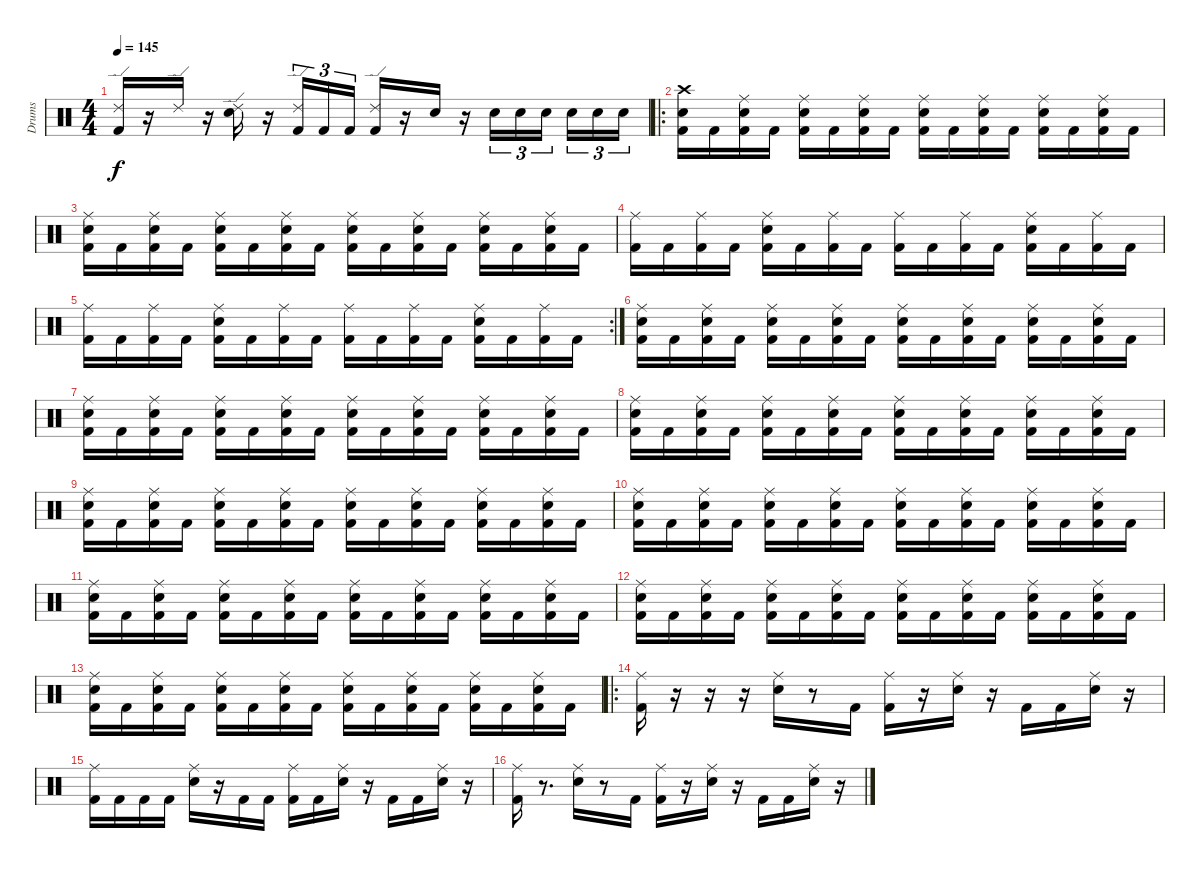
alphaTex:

\track ("Drums" "Drums") {instrument percussion}
\staff {score}
\articulation defaults
\ts (4 4)
\tempo 145
\clef neutral
\ks c
("Ride (edge) 2" "Kick (hit) 2").16{dy f} r.16 "Ride (edge) 2".16 r.16 ("Ride (edge) 2" "Electric Snare (hit)").16 r.16 ("Ride (edge) 2" "Kick (hit) 2").16{tu (3 2)} "Kick (hit) 2".16{tu (3 2)} "Kick (hit) 2".16{tu (3 2)} ("Ride (edge) 2" "Kick (hit) 2").16 r.16 "Electric Snare (hit)".16 r.16 "Electric Snare (hit)".16{tu (3 2)} "Electric Snare (hit)".16{tu (3 2)} "Electric Snare (hit)".16{tu (3 2)} "Electric Snare (hit)".16{tu (3 2)} "Electric Snare (hit)".16{tu (3 2)} "Electric Snare (hit)".16{tu (3 2)} |
\ro
("Crash high (hit)" "Electric Snare (hit)" "Kick (hit) 2").16 "Kick (hit) 2".16 ("Ride (middle)" "Electric Snare (hit)" "Kick (hit) 2").16 "Kick (hit) 2".16 ("Ride (middle)" "Electric Snare (hit)" "Kick (hit) 2").16 "Kick (hit) 2".16 ("Ride (middle)" "Electric Snare (hit)" "Kick (hit) 2").16 "Kick (hit) 2".16 ("Ride (middle)" "Electric Snare (hit)" "Kick (hit) 2").16 "Kick (hit) 2".16 ("Ride (middle)" "Electric Snare (hit)" "Kick (hit) 2").16 "Kick (hit) 2".16 ("Ride (middle)" "Electric Snare (hit)" "Kick (hit) 2").16 "Kick (hit) 2".16 ("Ride (middle)" "Electric Snare (hit)" "Kick (hit) 2").16 "Kick (hit) 2".16 |
("Ride (middle)" "Electric Snare (hit)" "Kick (hit) 2").16 "Kick (hit) 2".16 ("Ride (middle)" "Electric Snare (hit)" "Kick (hit) 2").16 "Kick (hit) 2".16 ("Ride (middle)" "Electric Snare (hit)" "Kick (hit) 2").16 "Kick (hit) 2".16 ("Ride (middle)" "Electric Snare (hit)" "Kick (hit) 2").16 "Kick (hit) 2".16 ("Ride (middle)" "Electric Snare (hit)" "Kick (hit) 2").16 "Kick (hit) 2".16 ("Ride (middle)" "Electric Snare (hit)" "Kick (hit) 2").16 "Kick (hit) 2".16 ("Ride (middle)" "Electric Snare (hit)" "Kick (hit) 2").16 "Kick (hit) 2".16 ("Ride (middle)" "Electric Snare (hit)" "Kick (hit) 2").16 "Kick (hit) 2".16 |
("Ride (middle)" "Kick (hit) 2").16 "Kick (hit) 2".16 ("Ride (middle)" "Kick (hit) 2").16 "Kick (hit) 2".16 ("Ride (middle)" "Electric Snare (hit)" "Kick (hit) 2").16 "Kick (hit) 2".16 ("Ride (middle)" "Kick (hit) 2").16 "Kick (hit) 2".16 ("Ride (middle)" "Kick (hit) 2").16 "Kick (hit) 2".16 ("Ride (middle)" "Kick (hit) 2").16 "Kick (hit) 2".16 ("Ride (middle)" "Electric Snare (hit)" "Kick (hit) 2").16 "Kick (hit) 2".16 ("Ride (middle)" "Kick (hit) 2").16 "Kick (hit) 2".16 |
\rc 2
("Ride (middle)" "Kick (hit) 2").16 "Kick (hit) 2".16 ("Ride (middle)" "Kick (hit) 2").16 "Kick (hit) 2".16 ("Ride (middle)" "Electric Snare (hit)" "Kick (hit) 2").16 "Kick (hit) 2".16 ("Ride (middle)" "Kick (hit) 2").16 "Kick (hit) 2".16 ("Ride (middle)" "Kick (hit) 2").16 "Kick (hit) 2".16 ("Ride (middle)" "Kick (hit) 2").16 "Kick (hit) 2".16 ("Ride (middle)" "Electric Snare (hit)" "Kick (hit) 2").16 "Kick (hit) 2".16 ("Ride (middle)" "Kick (hit) 2").16 "Kick (hit) 2".16 |
("Ride (middle)" "Electric Snare (hit)" "Kick (hit) 2").16 "Kick (hit) 2".16 ("Ride (middle)" "Electric Snare (hit)" "Kick (hit) 2").16 "Kick (hit) 2".16 ("Ride (middle)" "Electric Snare (hit)" "Kick (hit) 2").16 "Kick (hit) 2".16 ("Ride (middle)" "Electric Snare (hit)" "Kick (hit) 2").16 "Kick (hit) 2".16 ("Ride (middle)" "Electric Snare (hit)" "Kick (hit) 2").16 "Kick (hit) 2".16 ("Ride (middle)" "Electric Snare (hit)" "Kick (hit) 2").16 "Kick (hit) 2".16 ("Ride (middle)" "Electric Snare (hit)" "Kick (hit) 2").16 "Kick (hit) 2".16 ("Ride (middle)" "Electric Snare (hit)" "Kick (hit) 2").16 "Kick (hit) 2".16 |
("Ride (middle)" "Electric Snare (hit)" "Kick (hit) 2").16 "Kick (hit) 2".16 ("Ride (middle)" "Electric Snare (hit)" "Kick (hit) 2").16 "Kick (hit) 2".16 ("Ride (middle)" "Electric Snare (hit)" "Kick (hit) 2").16 "Kick (hit) 2".16 ("Ride (middle)" "Electric Snare (hit)" "Kick (hit) 2").16 "Kick (hit) 2".16 ("Ride (middle)" "Electric Snare (hit)" "Kick (hit) 2").16 "Kick (hit) 2".16 ("Ride (middle)" "Electric Snare (hit)" "Kick (hit) 2").16 "Kick (hit) 2".16 ("Ride (middle)" "Electric Snare (hit)" "Kick (hit) 2").16 "Kick (hit) 2".16 ("Ride (middle)" "Electric Snare (hit)" "Kick (hit) 2").16 "Kick (hit) 2".16 |
("Ride (middle)" "Electric Snare (hit)" "Kick (hit) 2").16 "Kick (hit) 2".16 ("Ride (middle)" "Electric Snare (hit)" "Kick (hit) 2").16 "Kick (hit) 2".16 ("Ride (middle)" "Electric Snare (hit)" "Kick (hit) 2").16 "Kick (hit) 2".16 ("Ride (middle)" "Electric Snare (hit)" "Kick (hit) 2").16 "Kick (hit) 2".16 ("Ride (middle)" "Electric Snare (hit)" "Kick (hit) 2").16 "Kick (hit) 2".16 ("Ride (middle)" "Electric Snare (hit)" "Kick (hit) 2").16 "Kick (hit) 2".16 ("Ride (middle)" "Electric Snare (hit)" "Kick (hit) 2").16 "Kick (hit) 2".16 ("Ride (middle)" "Electric Snare (hit)" "Kick (hit) 2").16 "Kick (hit) 2".16 |
("Ride (middle)" "Electric Snare (hit)" "Kick (hit) 2").16 "Kick (hit) 2".16 ("Ride (middle)" "Electric Snare (hit)" "Kick (hit) 2").16 "Kick (hit) 2".16 ("Ride (middle)" "Electric Snare (hit)" "Kick (hit) 2").16 "Kick (hit) 2".16 ("Ride (middle)" "Electric Snare (hit)" "Kick (hit) 2").16 "Kick (hit) 2".16 ("Ride (middle)" "Electric Snare (hit)" "Kick (hit) 2").16 "Kick (hit) 2".16 ("Ride (middle)" "Electric Snare (hit)" "Kick (hit) 2").16 "Kick (hit) 2".16 ("Ride (middle)" "Electric Snare (hit)" "Kick (hit) 2").16 "Kick (hit) 2".16 ("Ride (middle)" "Electric Snare (hit)" "Kick (hit) 2").16 "Kick (hit) 2".16 |
("Ride (middle)" "Electric Snare (hit)" "Kick (hit) 2").16 "Kick (hit) 2".16 ("Ride (middle)" "Electric Snare (hit)" "Kick (hit) 2").16 "Kick (hit) 2".16 ("Ride (middle)" "Electric Snare (hit)" "Kick (hit) 2").16 "Kick (hit) 2".16 ("Ride (middle)" "Electric Snare (hit)" "Kick (hit) 2").16 "Kick (hit) 2".16 ("Ride (middle)" "Electric Snare (hit)" "Kick (hit) 2").16 "Kick (hit) 2".16 ("Ride (middle)" "Electric Snare (hit)" "Kick (hit) 2").16 "Kick (hit) 2".16 ("Ride (middle)" "Electric Snare (hit)" "Kick (hit) 2").16 "Kick (hit) 2".16 ("Ride (middle)" "Electric Snare (hit)" "Kick (hit) 2").16 "Kick (hit) 2".16 |
("Ride (middle)" "Electric Snare (hit)" "Kick (hit) 2").16 "Kick (hit) 2".16 ("Ride (middle)" "Electric Snare (hit)" "Kick (hit) 2").16 "Kick (hit) 2".16 ("Ride (middle)" "Electric Snare (hit)" "Kick (hit) 2").16 "Kick (hit) 2".16 ("Ride (middle)" "Electric Snare (hit)" "Kick (hit) 2").16 "Kick (hit) 2".16 ("Ride (middle)" "Electric Snare (hit)" "Kick (hit) 2").16 "Kick (hit) 2".16 ("Ride (middle)" "Electric Snare (hit)" "Kick (hit) 2").16 "Kick (hit) 2".16 ("Ride (middle)" "Electric Snare (hit)" "Kick (hit) 2").16 "Kick (hit) 2".16 ("Ride (middle)" "Electric Snare (hit)" "Kick (hit) 2").16 "Kick (hit) 2".16 |
("Ride (middle)" "Electric Snare (hit)" "Kick (hit) 2").16 "Kick (hit) 2".16 ("Ride (middle)" "Electric Snare (hit)" "Kick (hit) 2").16 "Kick (hit) 2".16 ("Ride (middle)" "Electric Snare (hit)" "Kick (hit) 2").16 "Kick (hit) 2".16 ("Ride (middle)" "Electric Snare (hit)" "Kick (hit) 2").16 "Kick (hit) 2".16 ("Ride (middle)" "Electric Snare (hit)" "Kick (hit) 2").16 "Kick (hit) 2".16 ("Ride (middle)" "Electric Snare (hit)" "Kick (hit) 2").16 "Kick (hit) 2".16 ("Ride (middle)" "Electric Snare (hit)" "Kick (hit) 2").16 "Kick (hit) 2".16 ("Ride (middle)" "Electric Snare (hit)" "Kick (hit) 2").16 "Kick (hit) 2".16 |
("Ride (middle)" "Electric Snare (hit)" "Kick (hit) 2").16 "Kick (hit) 2".16 ("Ride (middle)" "Electric Snare (hit)" "Kick (hit) 2").16 "Kick (hit) 2".16 ("Ride (middle)" "Electric Snare (hit)" "Kick (hit) 2").16 "Kick (hit) 2".16 ("Ride (middle)" "Electric Snare (hit)" "Kick (hit) 2").16 "Kick (hit) 2".16 ("Ride (middle)" "Electric Snare (hit)" "Kick (hit) 2").16 "Kick (hit) 2".16 ("Ride (middle)" "Electric Snare (hit)" "Kick (hit) 2").16 "Kick (hit) 2".16 ("Ride (middle)" "Electric Snare (hit)" "Kick (hit) 2").16 "Kick (hit) 2".16 ("Ride (middle)" "Electric Snare (hit)" "Kick (hit) 2").16 "Kick (hit) 2".16 |
\ro
("Ride (middle)" "Kick (hit) 2").16 r.16 r.16 r.16 ("Ride (middle)" "Electric Snare (hit)").16 r.8 "Kick (hit) 2".16 ("Ride (middle)" "Kick (hit) 2").16 r.16 ("Ride (middle)" "Electric Snare (hit)").16 r.16 "Kick (hit) 2".16 "Kick (hit) 2".16 ("Ride (middle)" "Electric Snare (hit)").16 r.16 |
("Ride (middle)" "Kick (hit) 2").16 "Kick (hit) 2".16 "Kick (hit) 2".16 "Kick (hit) 2".16 ("Ride (middle)" "Electric Snare (hit)").16 r.16 "Kick (hit) 2".16 "Kick (hit) 2".16 ("Ride (middle)" "Kick (hit) 2").16 "Kick (hit) 2".16 ("Ride (middle)" "Electric Snare (hit)").16 r.16 "Kick (hit) 2".16 "Kick (hit) 2".16 ("Ride (middle)" "Electric Snare (hit)").16 r.16 |
("Ride (middle)" "Kick (hit) 2").16 r.8{d} ("Ride (middle)" "Electric Snare (hit)").16 r.8 "Kick (hit) 2".16 ("Ride (middle)" "Kick (hit) 2").16 r.16 ("Ride (middle)" "Electric Snare (hit)").16 r.16 "Kick (hit) 2".16 "Kick (hit) 2".16 ("Ride (middle)" "Electric Snare (hit)").16 r.16
